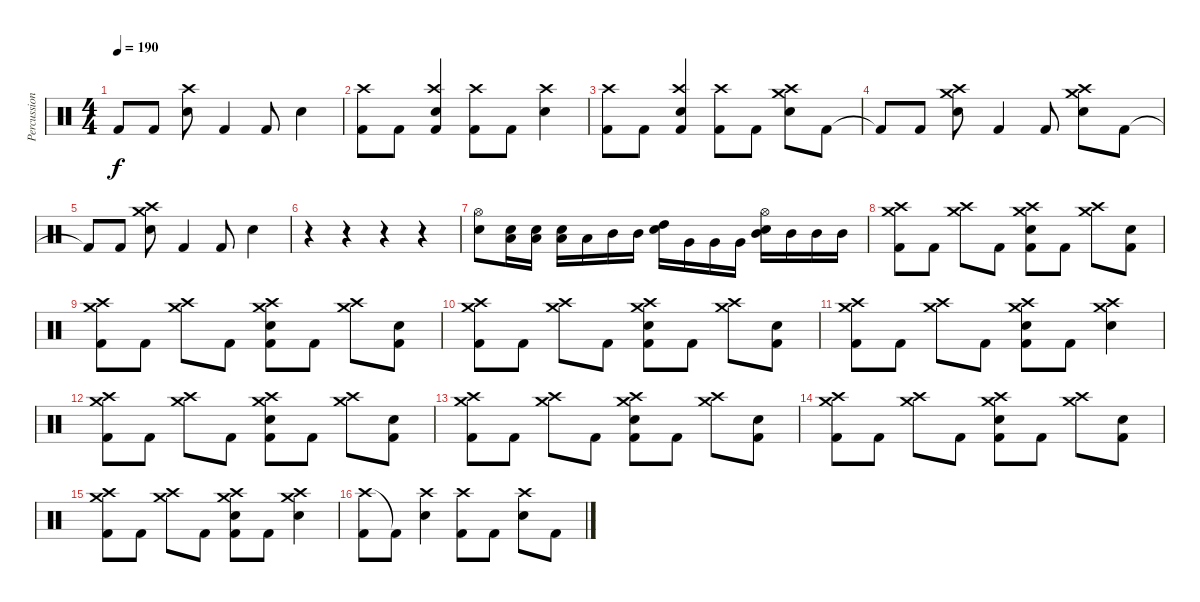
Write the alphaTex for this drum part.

\track ("Percussion" "Percussion") {instrument percussion}
\staff {score}
\articulation defaults
\ts (4 4)
\tempo 190
\clef neutral
\ks c "Kick (hit) 2"{t}.8{dy f} "Kick (hit) 2".8
("Crash high (hit)" "Electric Snare (hit)").8 "Kick (hit) 2".4 "Kick (hit) 2".8 "Electric Snare (hit)".4 |
("Crash high (hit)" "Kick (hit) 2").8 "Kick (hit) 2".8 ("Crash high (hit)" "Electric Snare (hit)" "Kick (hit) 2").4 ("Crash high (hit)" "Kick (hit) 2").8 "Kick (hit) 2".8 ("Crash high (hit)" "Electric Snare (hit)").4 |
("Crash high (hit)" "Kick (hit) 2").8 "Kick (hit) 2".8 ("Crash high (hit)" "Electric Snare (hit)" "Kick (hit) 2").4 ("Crash high (hit)" "Kick (hit) 2").8 "Kick (hit) 2".8 ("Crash medium (hit)" "Crash high (hit)" "Electric Snare (hit)").8 "Kick (hit) 2".8 |
"Kick (hit) 2"{t}.8 "Kick (hit) 2".8 ("Crash medium (hit)" "Crash high (hit)" "Electric Snare (hit)").8 "Kick (hit) 2".4 "Kick (hit) 2".8 ("Crash medium (hit)" "Crash high (hit)" "Electric Snare (hit)").8 "Kick (hit) 2".8 |
"Kick (hit) 2"{t}.8 "Kick (hit) 2".8 ("Crash medium (hit)" "Crash high (hit)" "Electric Snare (hit)").8 "Kick (hit) 2".4 "Kick (hit) 2".8 "Electric Snare (hit)".4 |
r.4 r.4 r.4 r.4 |
("Hi-Hat (open)" "Electric Snare (hit)").8 ("Electric Snare (hit)" "Low Tom (hit)").16 ("Electric Snare (hit)" "Low Tom (hit)").16 ("Electric Snare (hit)" "Low Tom (hit)").16 "Low Floor Tom (hit)".16 "Mid Tom (hit)".16 "Mid Tom (hit)".16 ("Electric Snare (hit)" "High Tom (hit)").16 "Very Low Tom (hit)".16 "Very Low Tom (hit)".16 "Very Low Tom (hit)".16 ("Hi-Hat (open)" "Electric Snare (hit)" "Mid Tom (hit)").16 "Mid Tom (hit)".16 "Mid Tom (hit)".16 "Mid Tom (hit)".16 |
("Crash medium (hit)" "Crash high (hit)" "Kick (hit) 2").8 "Kick (hit) 2".8 ("Crash medium (hit)" "Crash high (hit)").8 "Kick (hit) 2".8 ("Crash medium (hit)" "Crash high (hit)" "Electric Snare (hit)" "Kick (hit) 2").8 "Kick (hit) 2".8 ("Crash medium (hit)" "Crash high (hit)").8 ("Electric Snare (hit)" "Kick (hit) 2").8 |
("Crash medium (hit)" "Crash high (hit)" "Kick (hit) 2").8 "Kick (hit) 2".8 ("Crash medium (hit)" "Crash high (hit)").8 "Kick (hit) 2".8 ("Crash medium (hit)" "Crash high (hit)" "Electric Snare (hit)" "Kick (hit) 2").8 "Kick (hit) 2".8 ("Crash medium (hit)" "Crash high (hit)").8 ("Electric Snare (hit)" "Kick (hit) 2").8 |
("Crash medium (hit)" "Crash high (hit)" "Kick (hit) 2").8 "Kick (hit) 2".8 ("Crash medium (hit)" "Crash high (hit)").8 "Kick (hit) 2".8 ("Crash medium (hit)" "Crash high (hit)" "Electric Snare (hit)" "Kick (hit) 2").8 "Kick (hit) 2".8 ("Crash medium (hit)" "Crash high (hit)").8 ("Electric Snare (hit)" "Kick (hit) 2").8 |
("Crash medium (hit)" "Crash high (hit)" "Kick (hit) 2").8 "Kick (hit) 2".8 ("Crash medium (hit)" "Crash high (hit)").8 "Kick (hit) 2".8 ("Crash medium (hit)" "Crash high (hit)" "Electric Snare (hit)" "Kick (hit) 2").8 "Kick (hit) 2".8 ("Crash medium (hit)" "Crash high (hit)" "Electric Snare (hit)").4 |
("Crash medium (hit)" "Crash high (hit)" "Kick (hit) 2").8 "Kick (hit) 2".8 ("Crash medium (hit)" "Crash high (hit)").8 "Kick (hit) 2".8 ("Crash medium (hit)" "Crash high (hit)" "Electric Snare (hit)" "Kick (hit) 2").8 "Kick (hit) 2".8 ("Crash medium (hit)" "Crash high (hit)").8 ("Electric Snare (hit)" "Kick (hit) 2").8 |
("Crash medium (hit)" "Crash high (hit)" "Kick (hit) 2").8 "Kick (hit) 2".8 ("Crash medium (hit)" "Crash high (hit)").8 "Kick (hit) 2".8 ("Crash medium (hit)" "Crash high (hit)" "Electric Snare (hit)" "Kick (hit) 2").8 "Kick (hit) 2".8 ("Crash medium (hit)" "Crash high (hit)").8 ("Electric Snare (hit)" "Kick (hit) 2").8 |
("Crash medium (hit)" "Crash high (hit)" "Kick (hit) 2").8 "Kick (hit) 2".8 ("Crash medium (hit)" "Crash high (hit)").8 "Kick (hit) 2".8 ("Crash medium (hit)" "Crash high (hit)" "Electric Snare (hit)" "Kick (hit) 2").8 "Kick (hit) 2".8 ("Crash medium (hit)" "Crash high (hit)").8 ("Electric Snare (hit)" "Kick (hit) 2").8 |
("Crash medium (hit)" "Crash high (hit)" "Kick (hit) 2").8 "Kick (hit) 2".8 ("Crash medium (hit)" "Crash high (hit)").8 "Kick (hit) 2".8 ("Crash medium (hit)" "Crash high (hit)" "Electric Snare (hit)" "Kick (hit) 2").8 "Kick (hit) 2".8 ("Crash medium (hit)" "Crash high (hit)" "Electric Snare (hit)").4 |
("Crash high (hit)" "Kick (hit) 2").8 "Kick (hit) 2"{t}.8 ("Crash high (hit)" "Electric Snare (hit)").4 ("Crash high (hit)" "Kick (hit) 2").8 "Kick (hit) 2".8 ("Crash high (hit)" "Electric Snare (hit)").8 "Kick (hit) 2".8
